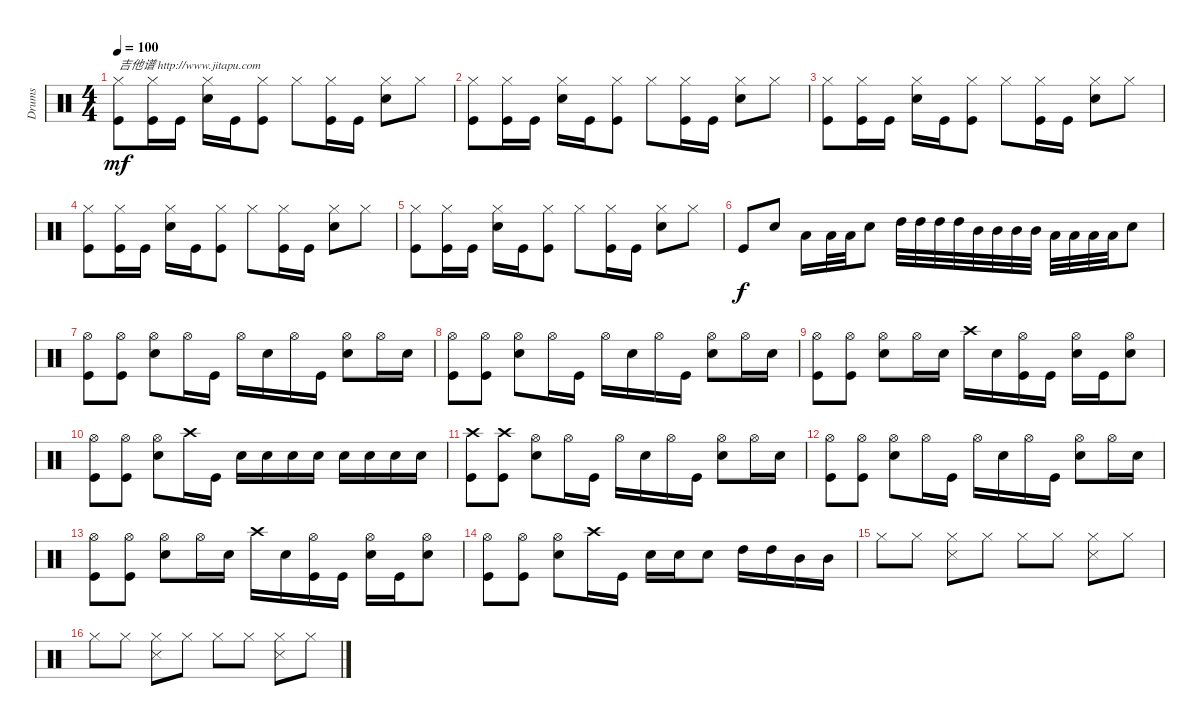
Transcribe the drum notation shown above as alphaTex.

\track ("Drums" "Drums") {instrument percussion}
\staff {score}
\articulation defaults
\ts (4 4)
\tempo 100
\clef neutral
\ks c
("Hi-Hat (closed)" "Kick (hit)").8{txt "吉他谱 http://www.jitapu.com" dy mf} ("Hi-Hat (closed)" "Kick (hit)").16 "Kick (hit)".16 ("Hi-Hat (closed)" "Snare (hit) 2").16 "Kick (hit)".16 ("Hi-Hat (closed)" "Kick (hit)").8 "Hi-Hat (closed)".8 ("Hi-Hat (closed)" "Kick (hit)").16 "Kick (hit)".16 ("Hi-Hat (closed)" "Snare (hit) 2").8 "Hi-Hat (closed)".8 |
("Hi-Hat (closed)" "Kick (hit)").8 ("Hi-Hat (closed)" "Kick (hit)").16 "Kick (hit)".16 ("Hi-Hat (closed)" "Snare (hit) 2").16 "Kick (hit)".16 ("Hi-Hat (closed)" "Kick (hit)").8 "Hi-Hat (closed)".8 ("Hi-Hat (closed)" "Kick (hit)").16 "Kick (hit)".16 ("Hi-Hat (closed)" "Snare (hit) 2").8 "Hi-Hat (closed)".8 |
("Hi-Hat (closed)" "Kick (hit)").8 ("Hi-Hat (closed)" "Kick (hit)").16 "Kick (hit)".16 ("Hi-Hat (closed)" "Snare (hit) 2").16 "Kick (hit)".16 ("Hi-Hat (closed)" "Kick (hit)").8 "Hi-Hat (closed)".8 ("Hi-Hat (closed)" "Kick (hit)").16 "Kick (hit)".16 ("Hi-Hat (closed)" "Snare (hit) 2").8 "Hi-Hat (closed)".8 |
("Hi-Hat (closed)" "Kick (hit)").8 ("Hi-Hat (closed)" "Kick (hit)").16 "Kick (hit)".16 ("Hi-Hat (closed)" "Snare (hit) 2").16 "Kick (hit)".16 ("Hi-Hat (closed)" "Kick (hit)").8 "Hi-Hat (closed)".8 ("Hi-Hat (closed)" "Kick (hit)").16 "Kick (hit)".16 ("Hi-Hat (closed)" "Snare (hit) 2").8 "Hi-Hat (closed)".8 |
("Hi-Hat (closed)" "Kick (hit)").8 ("Hi-Hat (closed)" "Kick (hit)").16 "Kick (hit)".16 ("Hi-Hat (closed)" "Snare (hit) 2").16 "Kick (hit)".16 ("Hi-Hat (closed)" "Kick (hit)").8 "Hi-Hat (closed)".8 ("Hi-Hat (closed)" "Kick (hit)").16 "Kick (hit)".16 ("Hi-Hat (closed)" "Snare (hit) 2").8 "Hi-Hat (closed)".8 |
"Kick (hit)".8{dy f volume 13} "Snare (hit) 2".8 "Low Floor Tom (hit)".16 "Low Floor Tom (hit)".32 "Low Floor Tom (hit)".32 "Snare (hit) 2".8 "High Tom (hit)".32 "High Tom (hit)".32 "High Tom (hit)".32 "High Tom (hit)".32 "Mid Tom (hit)".32 "Mid Tom (hit)".32 "Mid Tom (hit)".32 "Mid Tom (hit)".32 "Low Floor Tom (hit)".32 "Low Floor Tom (hit)".32 "Low Floor Tom (hit)".32 "Low Floor Tom (hit)".32 "Snare (hit) 2".8 |
("Hi-Hat (open)" "Kick (hit)").8 ("Hi-Hat (open)" "Kick (hit)").8 ("Hi-Hat (open)" "Snare (hit) 2").8 "Hi-Hat (open)".16 "Kick (hit)".16 "Hi-Hat (open)".16 "Snare (hit) 2".16 "Hi-Hat (open)".16 "Kick (hit)".16 ("Hi-Hat (open)" "Snare (hit) 2").8 "Hi-Hat (open)".16 "Snare (hit) 2".16 |
("Hi-Hat (open)" "Kick (hit)").8 ("Hi-Hat (open)" "Kick (hit)").8 ("Hi-Hat (open)" "Snare (hit) 2").8 "Hi-Hat (open)".16 "Kick (hit)".16 "Hi-Hat (open)".16 "Snare (hit) 2".16 "Hi-Hat (open)".16 "Kick (hit)".16 ("Hi-Hat (open)" "Snare (hit) 2").8 "Hi-Hat (open)".16 "Snare (hit) 2".16 |
("Hi-Hat (open)" "Kick (hit)").8 ("Hi-Hat (open)" "Kick (hit)").8 ("Hi-Hat (open)" "Snare (hit) 2").8 "Hi-Hat (open)".16 "Snare (hit) 2".16 "Crash high (hit)".16 "Snare (hit) 2".16 ("Hi-Hat (open)" "Kick (hit)").16 "Kick (hit)".16 ("Hi-Hat (open)" "Snare (hit) 2").16 "Kick (hit)".16 ("Hi-Hat (open)" "Snare (hit) 2").8 |
("Hi-Hat (open)" "Kick (hit)").8 ("Hi-Hat (open)" "Kick (hit)").8 ("Hi-Hat (open)" "Snare (hit) 2").8 "Crash high (hit)".16 "Kick (hit)".16 "Snare (hit) 2".16 "Snare (hit) 2".16 "Snare (hit) 2".16 "Snare (hit) 2".16 "Snare (hit) 2".16 "Snare (hit) 2".16 "Snare (hit) 2".16 "Snare (hit) 2".16 |
("Crash high (hit)" "Kick (hit)").8 ("Crash high (hit)" "Kick (hit)").8 ("Hi-Hat (open)" "Snare (hit) 2").8 "Hi-Hat (open)".16 "Kick (hit)".16 "Hi-Hat (open)".16 "Snare (hit) 2".16 "Hi-Hat (open)".16 "Kick (hit)".16 ("Hi-Hat (open)" "Snare (hit) 2").8 "Hi-Hat (open)".16 "Snare (hit) 2".16 |
("Hi-Hat (open)" "Kick (hit)").8 ("Hi-Hat (open)" "Kick (hit)").8 ("Hi-Hat (open)" "Snare (hit) 2").8 "Hi-Hat (open)".16 "Kick (hit)".16 "Hi-Hat (open)".16 "Snare (hit) 2".16 "Hi-Hat (open)".16 "Kick (hit)".16 ("Hi-Hat (open)" "Snare (hit) 2").8 "Hi-Hat (open)".16 "Snare (hit) 2".16 |
("Hi-Hat (open)" "Kick (hit)").8 ("Hi-Hat (open)" "Kick (hit)").8 ("Hi-Hat (open)" "Snare (hit) 2").8 "Hi-Hat (open)".16 "Snare (hit) 2".16 "Crash high (hit)".16 "Snare (hit) 2".16 ("Hi-Hat (open)" "Kick (hit)").16 "Kick (hit)".16 ("Hi-Hat (open)" "Snare (hit) 2").16 "Kick (hit)".16 ("Hi-Hat (open)" "Snare (hit) 2").8 |
("Hi-Hat (open)" "Kick (hit)").8 ("Hi-Hat (open)" "Kick (hit)").8 ("Hi-Hat (open)" "Snare (hit) 2").8 "Crash high (hit)".16 "Kick (hit)".16 "Snare (hit) 2".16 "Snare (hit) 2".16 "Snare (hit) 2".8 "High Tom (hit)".16 "High Tom (hit)".16 "Mid Tom (hit)".16 "Mid Tom (hit)".16 |
"Hi-Hat (closed)".8 "Hi-Hat (closed)".8 ("Hi-Hat (closed)" "Snare (side stick) 3").8 "Hi-Hat (closed)".8 "Hi-Hat (closed)".8 "Hi-Hat (closed)".8 ("Hi-Hat (closed)" "Snare (side stick) 3").8 "Hi-Hat (closed)".8 |
"Hi-Hat (closed)".8 "Hi-Hat (closed)".8 ("Hi-Hat (closed)" "Snare (side stick) 3").8 "Hi-Hat (closed)".8 "Hi-Hat (closed)".8 "Hi-Hat (closed)".8 ("Hi-Hat (closed)" "Snare (side stick) 3").8 "Hi-Hat (closed)".8
